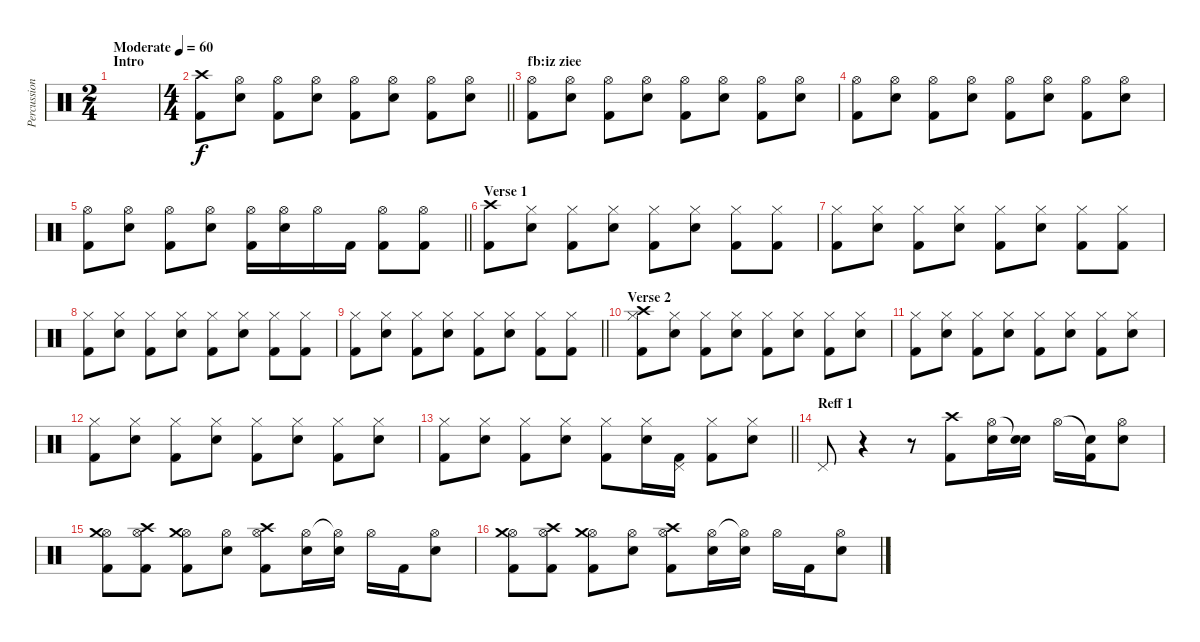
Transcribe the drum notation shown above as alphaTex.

\track ("Percussion 1" "Percussion") {instrument percussion}
\staff {score}
\articulation defaults
\ts (2 4)
\section ("" "Intro")
\tempo (60 "Moderate")
\clef neutral
\ks c
|
\ts (4 4)
\barLineRight lightlight
("Crash high (hit)" "Kick (hit) 2").8 ("Hi-Hat (open)" "Electric Snare (hit)").8 ("Hi-Hat (open)" "Kick (hit) 2").8 ("Hi-Hat (open)" "Electric Snare (hit)").8 ("Hi-Hat (open)" "Kick (hit) 2").8 ("Hi-Hat (open)" "Electric Snare (hit)").8 ("Hi-Hat (open)" "Kick (hit) 2").8 ("Hi-Hat (open)" "Electric Snare (hit)").8 |
\section ("" "fb:iz ziee")
("Hi-Hat (open)" "Kick (hit) 2").8 ("Hi-Hat (open)" "Electric Snare (hit)").8 ("Hi-Hat (open)" "Kick (hit) 2").8 ("Hi-Hat (open)" "Electric Snare (hit)").8 ("Hi-Hat (open)" "Kick (hit) 2").8 ("Hi-Hat (open)" "Electric Snare (hit)").8 ("Hi-Hat (open)" "Kick (hit) 2").8 ("Hi-Hat (open)" "Electric Snare (hit)").8 |
("Hi-Hat (open)" "Kick (hit) 2").8 ("Hi-Hat (open)" "Electric Snare (hit)").8 ("Hi-Hat (open)" "Kick (hit) 2").8 ("Hi-Hat (open)" "Electric Snare (hit)").8 ("Hi-Hat (open)" "Kick (hit) 2").8 ("Hi-Hat (open)" "Electric Snare (hit)").8 ("Hi-Hat (open)" "Kick (hit) 2").8 ("Hi-Hat (open)" "Electric Snare (hit)").8 |
\barLineRight lightlight
("Hi-Hat (open)" "Kick (hit) 2").8 ("Hi-Hat (open)" "Electric Snare (hit)").8 ("Hi-Hat (open)" "Kick (hit) 2").8 ("Hi-Hat (open)" "Electric Snare (hit)").8 ("Hi-Hat (open)" "Kick (hit) 2").16 ("Hi-Hat (open)" "Electric Snare (hit)").16 "Hi-Hat (open)".16 "Kick (hit) 2".16 ("Hi-Hat (open)" "Kick (hit) 2").8 ("Hi-Hat (open)" "Kick (hit) 2").8 |
\section ("" "Verse 1")
("Crash high (hit)" "Kick (hit) 2").8 ("Hi-Hat (closed)" "Electric Snare (hit)").8 ("Hi-Hat (closed)" "Kick (hit) 2").8 ("Hi-Hat (closed)" "Electric Snare (hit)").8 ("Hi-Hat (closed)" "Kick (hit) 2").8 ("Hi-Hat (closed)" "Electric Snare (hit)").8 ("Hi-Hat (closed)" "Kick (hit) 2").8 ("Hi-Hat (closed)" "Kick (hit) 2").8 |
("Hi-Hat (closed)" "Kick (hit) 2").8 ("Hi-Hat (closed)" "Electric Snare (hit)").8 ("Hi-Hat (closed)" "Kick (hit) 2").8 ("Hi-Hat (closed)" "Electric Snare (hit)").8 ("Hi-Hat (closed)" "Kick (hit) 2").8 ("Hi-Hat (closed)" "Electric Snare (hit)").8 ("Hi-Hat (closed)" "Kick (hit) 2").8 ("Hi-Hat (closed)" "Kick (hit) 2").8 |
("Hi-Hat (closed)" "Kick (hit) 2").8 ("Hi-Hat (closed)" "Electric Snare (hit)").8 ("Hi-Hat (closed)" "Kick (hit) 2").8 ("Hi-Hat (closed)" "Electric Snare (hit)").8 ("Hi-Hat (closed)" "Kick (hit) 2").8 ("Hi-Hat (closed)" "Electric Snare (hit)").8 ("Hi-Hat (closed)" "Kick (hit) 2").8 ("Hi-Hat (closed)" "Kick (hit) 2").8 |
\barLineRight lightlight
("Hi-Hat (closed)" "Kick (hit) 2").8 ("Hi-Hat (closed)" "Electric Snare (hit)").8 ("Hi-Hat (closed)" "Kick (hit) 2").8 ("Hi-Hat (closed)" "Electric Snare (hit)").8 ("Hi-Hat (closed)" "Kick (hit) 2").8 ("Hi-Hat (closed)" "Electric Snare (hit)").8 ("Hi-Hat (closed)" "Kick (hit) 2").8 ("Hi-Hat (closed)" "Kick (hit) 2").8 |
\section ("" "Verse 2")
("Hi-Hat (closed)" "Crash high (hit)" "Kick (hit) 2").8 ("Hi-Hat (closed)" "Electric Snare (hit)").8 ("Hi-Hat (closed)" "Kick (hit) 2").8 ("Hi-Hat (closed)" "Electric Snare (hit)").8 ("Hi-Hat (closed)" "Kick (hit) 2").8 ("Hi-Hat (closed)" "Electric Snare (hit)").8 ("Hi-Hat (closed)" "Kick (hit) 2").8 ("Hi-Hat (closed)" "Electric Snare (hit)").8 |
("Hi-Hat (closed)" "Kick (hit) 2").8 ("Hi-Hat (closed)" "Electric Snare (hit)").8 ("Hi-Hat (closed)" "Kick (hit) 2").8 ("Hi-Hat (closed)" "Electric Snare (hit)").8 ("Hi-Hat (closed)" "Kick (hit) 2").8 ("Hi-Hat (closed)" "Electric Snare (hit)").8 ("Hi-Hat (closed)" "Kick (hit) 2").8 ("Hi-Hat (closed)" "Electric Snare (hit)").8 |
("Hi-Hat (closed)" "Kick (hit) 2").8 ("Hi-Hat (closed)" "Electric Snare (hit)").8 ("Hi-Hat (closed)" "Kick (hit) 2").8 ("Hi-Hat (closed)" "Electric Snare (hit)").8 ("Hi-Hat (closed)" "Kick (hit) 2").8 ("Hi-Hat (closed)" "Electric Snare (hit)").8 ("Hi-Hat (closed)" "Kick (hit) 2").8 ("Hi-Hat (closed)" "Electric Snare (hit)").8 |
\barLineRight lightlight
("Hi-Hat (closed)" "Kick (hit) 2").8 ("Hi-Hat (closed)" "Electric Snare (hit)").8 ("Hi-Hat (closed)" "Kick (hit) 2").8 ("Hi-Hat (closed)" "Electric Snare (hit)").8 ("Hi-Hat (closed)" "Kick (hit) 2").8 ("Hi-Hat (closed)" "Electric Snare (hit)").16 ("Pedal Hi-Hat (hit)" "Kick (hit) 2").16 ("Hi-Hat (closed)" "Kick (hit) 2").8 ("Hi-Hat (closed)" "Electric Snare (hit)").8 |
\section ("" "Reff 1")
"Pedal Hi-Hat (hit)".8 r.4 r.8 ("Crash high (hit)" "Kick (hit) 2").8 ("Hi-Hat (open)" "Electric Snare (hit)").16 ("Snare (hit)"{t} "Electric Snare (hit)").16 "Hi-Hat (open)".16 ("Snare (hit)"{t} "Kick (hit) 2").16 ("Hi-Hat (open)" "Electric Snare (hit)").8 |
("Hi-Hat (open)" "Crash medium (hit)" "Kick (hit) 2").8 ("Hi-Hat (open)" "Crash high (hit)" "Kick (hit) 2").8 ("Hi-Hat (open)" "Crash medium (hit)" "Kick (hit) 2").8 ("Hi-Hat (open)" "Electric Snare (hit)").8 ("Hi-Hat (open)" "Crash high (hit)" "Kick (hit) 2").8 ("Hi-Hat (open)" "Electric Snare (hit)").16 ("Hi-Hat (open)"{t} "Electric Snare (hit)").16 "Hi-Hat (open)".16 "Kick (hit) 2".16 ("Hi-Hat (open)" "Electric Snare (hit)").8 |
("Hi-Hat (open)" "Crash medium (hit)" "Kick (hit) 2").8 ("Hi-Hat (open)" "Crash high (hit)" "Kick (hit) 2").8 ("Hi-Hat (open)" "Crash medium (hit)" "Kick (hit) 2").8 ("Hi-Hat (open)" "Electric Snare (hit)").8 ("Hi-Hat (open)" "Crash high (hit)" "Kick (hit) 2").8 ("Hi-Hat (open)" "Electric Snare (hit)").16 ("Hi-Hat (open)"{t} "Electric Snare (hit)").16 "Hi-Hat (open)".16 "Kick (hit) 2".16 ("Hi-Hat (open)" "Electric Snare (hit)").8
